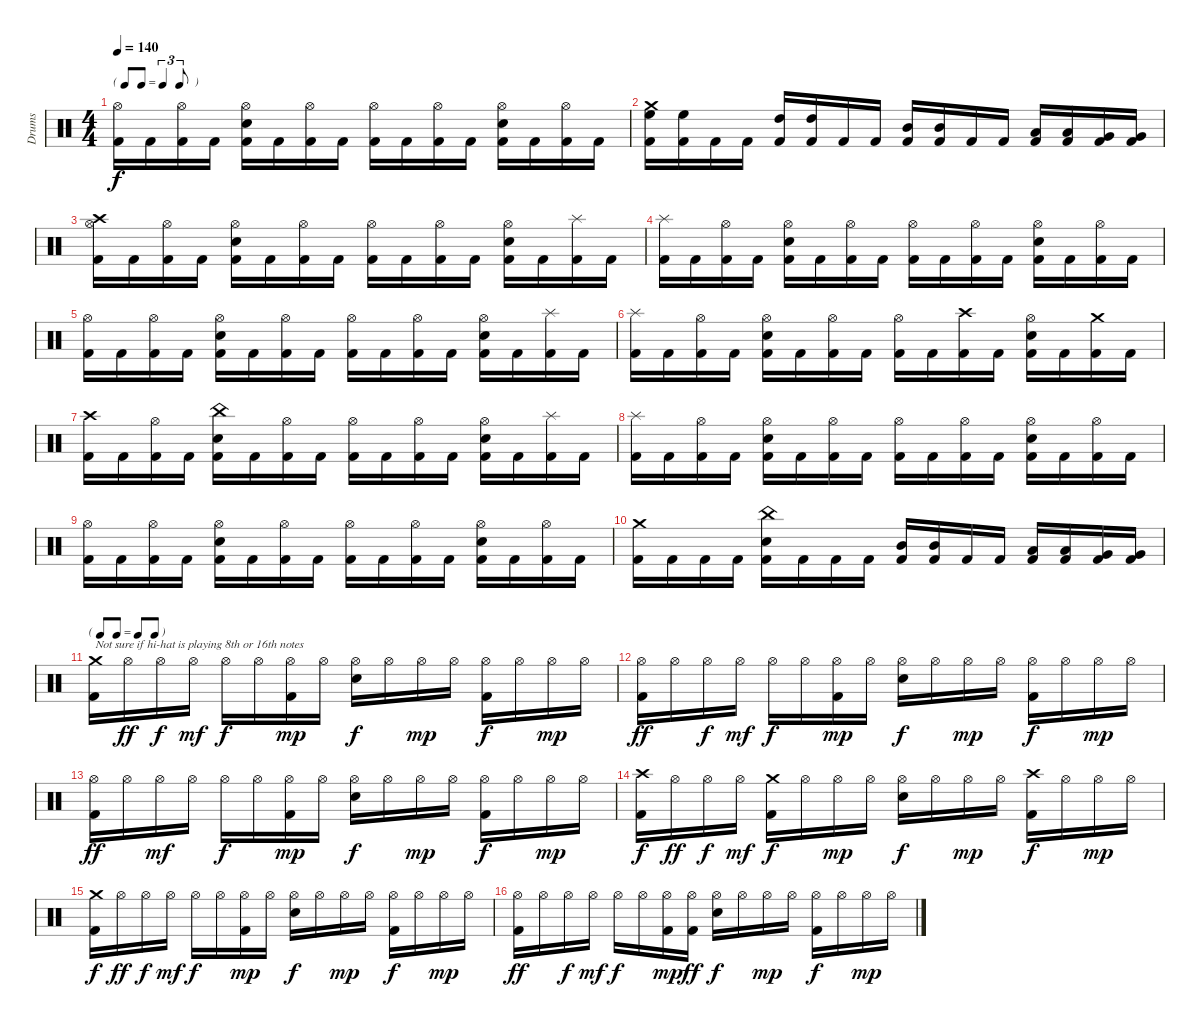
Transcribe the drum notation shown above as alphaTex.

\track ("Drums" "Drums") {instrument percussion}
\staff {score}
\articulation defaults
\ts (4 4)
\tf triplet8th
\tempo 140
\clef neutral
\ks c
("Hi-Hat (open)" "Kick (hit) 2").16{dy f} "Kick (hit) 2".16 ("Hi-Hat (open)" "Kick (hit) 2").16 "Kick (hit) 2".16 ("Hi-Hat (open)" "Electric Snare (hit)" "Kick (hit) 2").16 "Kick (hit) 2".16 ("Hi-Hat (open)" "Kick (hit) 2").16 "Kick (hit) 2".16 ("Hi-Hat (open)" "Kick (hit) 2").16 "Kick (hit) 2".16 ("Hi-Hat (open)" "Kick (hit) 2").16 "Kick (hit) 2".16 ("Hi-Hat (open)" "Electric Snare (hit)" "Kick (hit) 2").16 "Kick (hit) 2".16 ("Hi-Hat (open)" "Kick (hit) 2").16 "Kick (hit) 2".16 |
("Crash medium (hit)" "High Floor Tom (hit)" "Kick (hit) 2").16 ("High Floor Tom (hit)" "Kick (hit) 2").16 "Kick (hit) 2".16 "Kick (hit) 2".16 ("High Tom (hit)" "Kick (hit) 2").16 ("High Tom (hit)" "Kick (hit) 2").16 "Kick (hit) 2".16 "Kick (hit) 2".16 ("Mid Tom (hit)" "Kick (hit) 2").16 ("Mid Tom (hit)" "Kick (hit) 2").16 "Kick (hit) 2".16 "Kick (hit) 2".16 ("Low Tom (hit)" "Kick (hit) 2").16 ("Low Tom (hit)" "Kick (hit) 2").16 ("Very Low Tom (hit)" "Kick (hit) 2").16 ("Very Low Tom (hit)" "Kick (hit) 2").16 |
("Crash high (hit)" "Hi-Hat (open)" "Kick (hit) 2").16 "Kick (hit) 2".16 ("Hi-Hat (open)" "Kick (hit) 2").16 "Kick (hit) 2".16 ("Hi-Hat (open)" "Electric Snare (hit)" "Kick (hit) 2").16 "Kick (hit) 2".16 ("Hi-Hat (open)" "Kick (hit) 2").16 "Kick (hit) 2".16 ("Hi-Hat (open)" "Kick (hit) 2").16 "Kick (hit) 2".16 ("Hi-Hat (open)" "Kick (hit) 2").16 "Kick (hit) 2".16 ("Hi-Hat (open)" "Electric Snare (hit)" "Kick (hit) 2").16 "Kick (hit) 2".16 ("Splash (hit)" "Kick (hit) 2").16 "Kick (hit) 2".16 |
("Splash (hit)" "Kick (hit) 2").16 "Kick (hit) 2".16 ("Hi-Hat (open)" "Kick (hit) 2").16 "Kick (hit) 2".16 ("Hi-Hat (open)" "Electric Snare (hit)" "Kick (hit) 2").16 "Kick (hit) 2".16 ("Hi-Hat (open)" "Kick (hit) 2").16 "Kick (hit) 2".16 ("Hi-Hat (open)" "Kick (hit) 2").16 "Kick (hit) 2".16 ("Hi-Hat (open)" "Kick (hit) 2").16 "Kick (hit) 2".16 ("Hi-Hat (open)" "Electric Snare (hit)" "Kick (hit) 2").16 "Kick (hit) 2".16 ("Hi-Hat (open)" "Kick (hit) 2").16 "Kick (hit) 2".16 |
("Hi-Hat (open)" "Kick (hit) 2").16 "Kick (hit) 2".16 ("Hi-Hat (open)" "Kick (hit) 2").16 "Kick (hit) 2".16 ("Hi-Hat (open)" "Electric Snare (hit)" "Kick (hit) 2").16 "Kick (hit) 2".16 ("Hi-Hat (open)" "Kick (hit) 2").16 "Kick (hit) 2".16 ("Hi-Hat (open)" "Kick (hit) 2").16 "Kick (hit) 2".16 ("Hi-Hat (open)" "Kick (hit) 2").16 "Kick (hit) 2".16 ("Hi-Hat (open)" "Electric Snare (hit)" "Kick (hit) 2").16 "Kick (hit) 2".16 ("Splash (hit)" "Kick (hit) 2").16 "Kick (hit) 2".16 |
("Splash (hit)" "Kick (hit) 2").16 "Kick (hit) 2".16 ("Hi-Hat (open)" "Kick (hit) 2").16 "Kick (hit) 2".16 ("Hi-Hat (open)" "Electric Snare (hit)" "Kick (hit) 2").16 "Kick (hit) 2".16 ("Hi-Hat (open)" "Kick (hit) 2").16 "Kick (hit) 2".16 ("Hi-Hat (open)" "Kick (hit) 2").16 "Kick (hit) 2".16 ("Crash high (hit)" "Kick (hit) 2").16 "Kick (hit) 2".16 ("Hi-Hat (open)" "Electric Snare (hit)" "Kick (hit) 2").16 "Kick (hit) 2".16 ("Crash medium (hit)" "Kick (hit) 2").16 "Kick (hit) 2".16 |
("Crash high (hit)" "Kick (hit) 2").16 "Kick (hit) 2".16 ("Hi-Hat (open)" "Kick (hit) 2").16 "Kick (hit) 2".16 ("China (hit)" "Electric Snare (hit)" "Kick (hit) 2").16 "Kick (hit) 2".16 ("Hi-Hat (open)" "Kick (hit) 2").16 "Kick (hit) 2".16 ("Hi-Hat (open)" "Kick (hit) 2").16 "Kick (hit) 2".16 ("Hi-Hat (open)" "Kick (hit) 2").16 "Kick (hit) 2".16 ("Hi-Hat (open)" "Electric Snare (hit)" "Kick (hit) 2").16 "Kick (hit) 2".16 ("Splash (hit)" "Kick (hit) 2").16 "Kick (hit) 2".16 |
("Splash (hit)" "Kick (hit) 2").16 "Kick (hit) 2".16 ("Hi-Hat (open)" "Kick (hit) 2").16 "Kick (hit) 2".16 ("Hi-Hat (open)" "Electric Snare (hit)" "Kick (hit) 2").16 "Kick (hit) 2".16 ("Hi-Hat (open)" "Kick (hit) 2").16 "Kick (hit) 2".16 ("Hi-Hat (open)" "Kick (hit) 2").16 "Kick (hit) 2".16 ("Hi-Hat (open)" "Kick (hit) 2").16 "Kick (hit) 2".16 ("Hi-Hat (open)" "Electric Snare (hit)" "Kick (hit) 2").16 "Kick (hit) 2".16 ("Hi-Hat (open)" "Kick (hit) 2").16 "Kick (hit) 2".16 |
("Hi-Hat (open)" "Kick (hit) 2").16 "Kick (hit) 2".16 ("Hi-Hat (open)" "Kick (hit) 2").16 "Kick (hit) 2".16 ("Hi-Hat (open)" "Electric Snare (hit)" "Kick (hit) 2").16 "Kick (hit) 2".16 ("Hi-Hat (open)" "Kick (hit) 2").16 "Kick (hit) 2".16 ("Hi-Hat (open)" "Kick (hit) 2").16 "Kick (hit) 2".16 ("Hi-Hat (open)" "Kick (hit) 2").16 "Kick (hit) 2".16 ("Hi-Hat (open)" "Electric Snare (hit)" "Kick (hit) 2").16 "Kick (hit) 2".16 ("Hi-Hat (open)" "Kick (hit) 2").16 "Kick (hit) 2".16 |
("Crash medium (hit)" "Kick (hit) 2").16 "Kick (hit) 2".16 "Kick (hit) 2".16 "Kick (hit) 2".16 ("China (hit)" "Electric Snare (hit)" "Kick (hit) 2").16 "Kick (hit) 2".16 "Kick (hit) 2".16 "Kick (hit) 2".16 ("Mid Tom (hit)" "Kick (hit) 2").16 ("Mid Tom (hit)" "Kick (hit) 2").16 "Kick (hit) 2".16 "Kick (hit) 2".16 ("Low Tom (hit)" "Kick (hit) 2").16 ("Low Tom (hit)" "Kick (hit) 2").16 ("Very Low Tom (hit)" "Kick (hit) 2").16 ("Very Low Tom (hit)" "Kick (hit) 2").16 |
\tf none
("Crash medium (hit)" "Kick (hit) 2").16{txt "Not sure if hi-hat is playing 8th or 16th notes"} "Hi-Hat (open)".16{dy ff} "Hi-Hat (open)".16{dy f} "Hi-Hat (open)".16{dy mf} "Hi-Hat (open)".16{dy f} "Hi-Hat (open)".16 ("Hi-Hat (open)" "Kick (hit) 2").16{dy mp} "Hi-Hat (open)".16 ("Hi-Hat (open)" "Electric Snare (hit)").16{dy f} "Hi-Hat (open)".16 "Hi-Hat (open)".16{dy mp} "Hi-Hat (open)".16 ("Hi-Hat (open)" "Kick (hit) 2").16{dy f} "Hi-Hat (open)".16 "Hi-Hat (open)".16{dy mp} "Hi-Hat (open)".16 |
("Hi-Hat (open)" "Kick (hit) 2").16{dy ff} "Hi-Hat (open)".16 "Hi-Hat (open)".16{dy f} "Hi-Hat (open)".16{dy mf} "Hi-Hat (open)".16{dy f} "Hi-Hat (open)".16 ("Hi-Hat (open)" "Kick (hit) 2").16{dy mp} "Hi-Hat (open)".16 ("Hi-Hat (open)" "Electric Snare (hit)").16{dy f} "Hi-Hat (open)".16 "Hi-Hat (open)".16{dy mp} "Hi-Hat (open)".16 ("Hi-Hat (open)" "Kick (hit) 2").16{dy f} "Hi-Hat (open)".16 "Hi-Hat (open)".16{dy mp} "Hi-Hat (open)".16 |
("Hi-Hat (open)" "Kick (hit) 2").16{dy ff} "Hi-Hat (open)".16 "Hi-Hat (open)".16{dy mf} "Hi-Hat (open)".16 "Hi-Hat (open)".16{dy f} "Hi-Hat (open)".16 ("Hi-Hat (open)" "Kick (hit) 2").16{dy mp} "Hi-Hat (open)".16 ("Hi-Hat (open)" "Electric Snare (hit)").16{dy f} "Hi-Hat (open)".16 "Hi-Hat (open)".16{dy mp} "Hi-Hat (open)".16 ("Hi-Hat (open)" "Kick (hit) 2").16{dy f} "Hi-Hat (open)".16 "Hi-Hat (open)".16{dy mp} "Hi-Hat (open)".16 |
("Crash high (hit)" "Kick (hit) 2").16{dy f} "Hi-Hat (open)".16{dy ff} "Hi-Hat (open)".16{dy f} "Hi-Hat (open)".16{dy mf} ("Crash medium (hit)" "Kick (hit) 2").16{dy f} "Hi-Hat (open)".16 "Hi-Hat (open)".16{dy mp} "Hi-Hat (open)".16 ("Hi-Hat (open)" "Electric Snare (hit)").16{dy f} "Hi-Hat (open)".16 "Hi-Hat (open)".16{dy mp} "Hi-Hat (open)".16 ("Crash high (hit)" "Kick (hit) 2").16{dy f} "Hi-Hat (open)".16 "Hi-Hat (open)".16{dy mp} "Hi-Hat (open)".16 |
("Crash medium (hit)" "Kick (hit) 2").16{dy f} "Hi-Hat (open)".16{dy ff} "Hi-Hat (open)".16{dy f} "Hi-Hat (open)".16{dy mf} "Hi-Hat (open)".16{dy f} "Hi-Hat (open)".16 ("Hi-Hat (open)" "Kick (hit) 2").16{dy mp} "Hi-Hat (open)".16 ("Hi-Hat (open)" "Electric Snare (hit)").16{dy f} "Hi-Hat (open)".16 "Hi-Hat (open)".16{dy mp} "Hi-Hat (open)".16 ("Hi-Hat (open)" "Kick (hit) 2").16{dy f} "Hi-Hat (open)".16 "Hi-Hat (open)".16{dy mp} "Hi-Hat (open)".16 |
("Hi-Hat (open)" "Kick (hit) 2").16{dy ff} "Hi-Hat (open)".16 "Hi-Hat (open)".16{dy f} "Hi-Hat (open)".16{dy mf} "Hi-Hat (open)".16{dy f} "Hi-Hat (open)".16 ("Hi-Hat (open)" "Kick (hit) 2").16{dy mp} ("Hi-Hat (open)" "Kick (hit) 2").16{dy ff} ("Hi-Hat (open)" "Electric Snare (hit)").16{dy f} "Hi-Hat (open)".16 "Hi-Hat (open)".16{dy mp} "Hi-Hat (open)".16 ("Hi-Hat (open)" "Kick (hit) 2").16{dy f} "Hi-Hat (open)".16 "Hi-Hat (open)".16{dy mp} "Hi-Hat (open)".16
